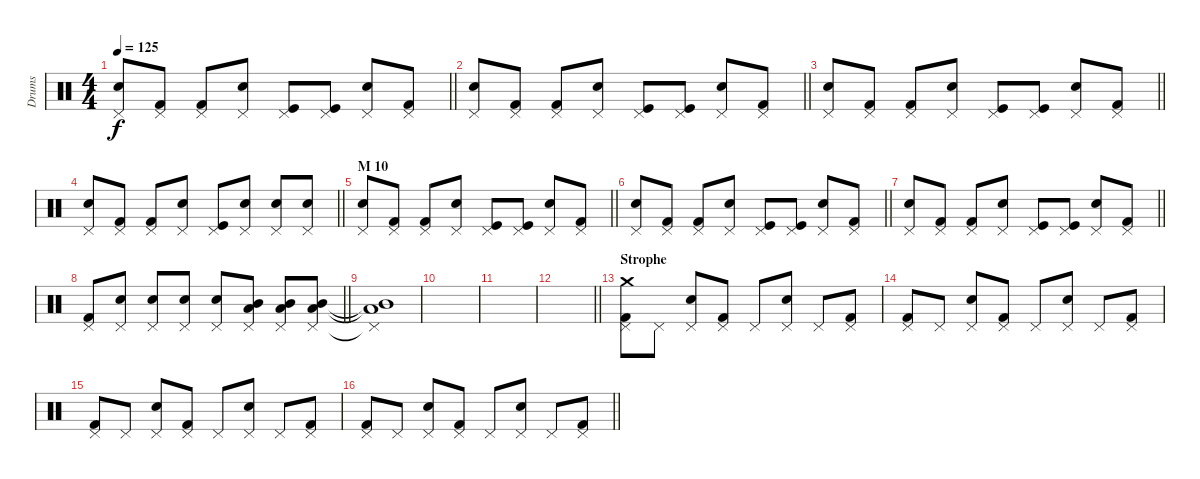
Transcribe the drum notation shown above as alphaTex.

\track ("Drums" "Drums") {instrument percussion}
\staff {score}
\articulation defaults
\ts (4 4)
\tempo 125
\clef neutral
\barLineRight lightlight
\ks c
("Electric Snare (hit)" "Pedal Hi-Hat (hit)").8{dy f} ("Kick (hit) 2" "Pedal Hi-Hat (hit)").8 ("Kick (hit) 2" "Pedal Hi-Hat (hit)").8 ("Electric Snare (hit)" "Pedal Hi-Hat (hit)").8 ("Kick (hit)" "Pedal Hi-Hat (hit)").8 ("Kick (hit)" "Pedal Hi-Hat (hit)").8 ("Electric Snare (hit)" "Pedal Hi-Hat (hit)").8 ("Kick (hit) 2" "Pedal Hi-Hat (hit)").8 |
\barLineRight lightlight
("Electric Snare (hit)" "Pedal Hi-Hat (hit)").8 ("Kick (hit) 2" "Pedal Hi-Hat (hit)").8 ("Kick (hit) 2" "Pedal Hi-Hat (hit)").8 ("Electric Snare (hit)" "Pedal Hi-Hat (hit)").8 ("Kick (hit)" "Pedal Hi-Hat (hit)").8 ("Kick (hit)" "Pedal Hi-Hat (hit)").8 ("Electric Snare (hit)" "Pedal Hi-Hat (hit)").8 ("Kick (hit) 2" "Pedal Hi-Hat (hit)").8 |
\barLineRight lightlight
("Electric Snare (hit)" "Pedal Hi-Hat (hit)").8 ("Kick (hit) 2" "Pedal Hi-Hat (hit)").8 ("Kick (hit) 2" "Pedal Hi-Hat (hit)").8 ("Electric Snare (hit)" "Pedal Hi-Hat (hit)").8 ("Kick (hit)" "Pedal Hi-Hat (hit)").8 ("Kick (hit)" "Pedal Hi-Hat (hit)").8 ("Electric Snare (hit)" "Pedal Hi-Hat (hit)").8 ("Kick (hit) 2" "Pedal Hi-Hat (hit)").8 |
\barLineRight lightlight
("Electric Snare (hit)" "Pedal Hi-Hat (hit)").8 ("Kick (hit) 2" "Pedal Hi-Hat (hit)").8 ("Kick (hit) 2" "Pedal Hi-Hat (hit)").8 ("Electric Snare (hit)" "Pedal Hi-Hat (hit)").8 ("Kick (hit)" "Pedal Hi-Hat (hit)").8 ("Electric Snare (hit)" "Pedal Hi-Hat (hit)").8 ("Electric Snare (hit)" "Pedal Hi-Hat (hit)").8 ("Electric Snare (hit)" "Pedal Hi-Hat (hit)").8 |
\section ("" "M 10")
\barLineRight lightlight
("Electric Snare (hit)" "Pedal Hi-Hat (hit)").8 ("Kick (hit) 2" "Pedal Hi-Hat (hit)").8 ("Kick (hit) 2" "Pedal Hi-Hat (hit)").8 ("Electric Snare (hit)" "Pedal Hi-Hat (hit)").8 ("Kick (hit)" "Pedal Hi-Hat (hit)").8 ("Kick (hit)" "Pedal Hi-Hat (hit)").8 ("Electric Snare (hit)" "Pedal Hi-Hat (hit)").8 ("Kick (hit) 2" "Pedal Hi-Hat (hit)").8 |
\barLineRight lightlight
("Electric Snare (hit)" "Pedal Hi-Hat (hit)").8 ("Kick (hit) 2" "Pedal Hi-Hat (hit)").8 ("Kick (hit) 2" "Pedal Hi-Hat (hit)").8 ("Electric Snare (hit)" "Pedal Hi-Hat (hit)").8 ("Kick (hit)" "Pedal Hi-Hat (hit)").8 ("Kick (hit)" "Pedal Hi-Hat (hit)").8 ("Electric Snare (hit)" "Pedal Hi-Hat (hit)").8 ("Kick (hit) 2" "Pedal Hi-Hat (hit)").8 |
\barLineRight lightlight
("Electric Snare (hit)" "Pedal Hi-Hat (hit)").8 ("Kick (hit) 2" "Pedal Hi-Hat (hit)").8 ("Kick (hit) 2" "Pedal Hi-Hat (hit)").8 ("Electric Snare (hit)" "Pedal Hi-Hat (hit)").8 ("Kick (hit)" "Pedal Hi-Hat (hit)").8 ("Kick (hit)" "Pedal Hi-Hat (hit)").8 ("Electric Snare (hit)" "Pedal Hi-Hat (hit)").8 ("Kick (hit) 2" "Pedal Hi-Hat (hit)").8 |
\barLineRight lightlight
("Kick (hit) 2" "Pedal Hi-Hat (hit)").8 ("Electric Snare (hit)" "Pedal Hi-Hat (hit)").8 ("Electric Snare (hit)" "Pedal Hi-Hat (hit)").8 ("Electric Snare (hit)" "Pedal Hi-Hat (hit)").8 ("Electric Snare (hit)" "Pedal Hi-Hat (hit)").8 ("Low Tom (hit)" "Mid Tom (hit)" "Pedal Hi-Hat (hit)").8 ("Low Tom (hit)" "Mid Tom (hit)" "Pedal Hi-Hat (hit)").8 ("Low Tom (hit)" "Mid Tom (hit)" "Pedal Hi-Hat (hit)").8 |
\section ("" "")
("Low Tom (hit)"{t} "Mid Tom (hit)"{t} "Pedal Hi-Hat (hit)"{t}).1 |
|
|
\barLineRight lightlight
|
\section ("" "Strophe")
("Kick (hit) 2" "Crash medium (hit)" "Pedal Hi-Hat (hit)").8 "Pedal Hi-Hat (hit)".8 ("Electric Snare (hit)" "Pedal Hi-Hat (hit)").8 ("Kick (hit) 2" "Pedal Hi-Hat (hit)").8 "Pedal Hi-Hat (hit)".8 ("Electric Snare (hit)" "Pedal Hi-Hat (hit)").8 "Pedal Hi-Hat (hit)".8 ("Kick (hit) 2" "Pedal Hi-Hat (hit)").8 |
("Kick (hit) 2" "Pedal Hi-Hat (hit)").8 "Pedal Hi-Hat (hit)".8 ("Electric Snare (hit)" "Pedal Hi-Hat (hit)").8 ("Kick (hit) 2" "Pedal Hi-Hat (hit)").8 "Pedal Hi-Hat (hit)".8 ("Electric Snare (hit)" "Pedal Hi-Hat (hit)").8 "Pedal Hi-Hat (hit)".8 ("Kick (hit) 2" "Pedal Hi-Hat (hit)").8 |
("Kick (hit) 2" "Pedal Hi-Hat (hit)").8 "Pedal Hi-Hat (hit)".8 ("Electric Snare (hit)" "Pedal Hi-Hat (hit)").8 ("Kick (hit) 2" "Pedal Hi-Hat (hit)").8 "Pedal Hi-Hat (hit)".8 ("Electric Snare (hit)" "Pedal Hi-Hat (hit)").8 "Pedal Hi-Hat (hit)".8 ("Kick (hit) 2" "Pedal Hi-Hat (hit)").8 |
\barLineRight lightlight
("Kick (hit) 2" "Pedal Hi-Hat (hit)").8 "Pedal Hi-Hat (hit)".8 ("Electric Snare (hit)" "Pedal Hi-Hat (hit)").8 ("Kick (hit) 2" "Pedal Hi-Hat (hit)").8 "Pedal Hi-Hat (hit)".8 ("Electric Snare (hit)" "Pedal Hi-Hat (hit)").8 "Pedal Hi-Hat (hit)".8 ("Kick (hit) 2" "Pedal Hi-Hat (hit)").8
